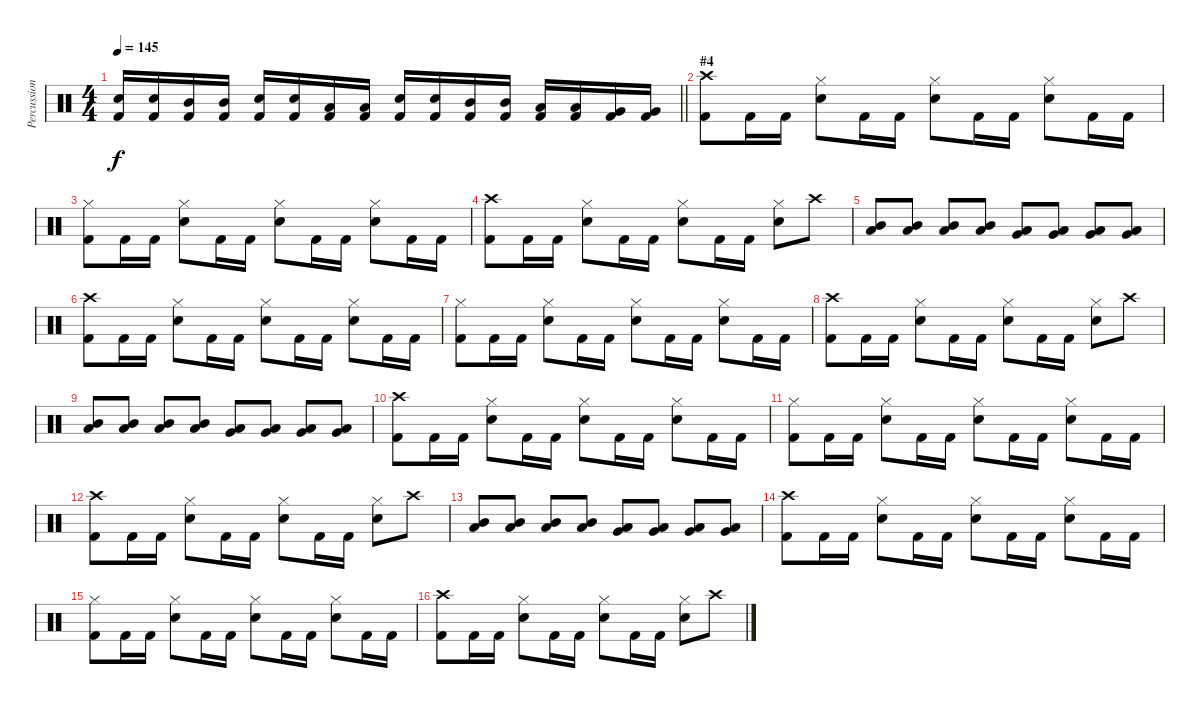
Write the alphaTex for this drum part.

\track ("Percussion" "Percussion") {instrument percussion}
\staff {score}
\articulation defaults
\ts (4 4)
\tempo 145
\clef neutral
\barLineRight lightlight
\ks c
("Electric Snare (hit)" "Kick (hit) 2").16{dy f} ("Electric Snare (hit)" "Kick (hit) 2").16 ("Mid Tom (hit)" "Kick (hit) 2").16 ("Mid Tom (hit)" "Kick (hit) 2").16 ("Electric Snare (hit)" "Kick (hit) 2").16 ("Electric Snare (hit)" "Kick (hit) 2").16 ("Low Tom (hit)" "Kick (hit) 2").16 ("Low Tom (hit)" "Kick (hit) 2").16 ("Electric Snare (hit)" "Kick (hit) 2").16 ("Electric Snare (hit)" "Kick (hit) 2").16 ("Mid Tom (hit)" "Kick (hit) 2").16 ("Mid Tom (hit)" "Kick (hit) 2").16 ("Low Tom (hit)" "Kick (hit) 2").16 ("Low Tom (hit)" "Kick (hit) 2").16 ("Very Low Tom (hit)" "Kick (hit) 2").16 ("Very Low Tom (hit)" "Kick (hit) 2").16 |
\section ("" "#4")
("Crash high (hit)" "Kick (hit) 2").8 "Kick (hit) 2".16 "Kick (hit) 2".16 ("Hi-Hat (closed)" "Electric Snare (hit)").8 "Kick (hit) 2".16 "Kick (hit) 2".16 ("Hi-Hat (closed)" "Electric Snare (hit)").8 "Kick (hit) 2".16 "Kick (hit) 2".16 ("Hi-Hat (closed)" "Electric Snare (hit)").8 "Kick (hit) 2".16 "Kick (hit) 2".16 |
("Hi-Hat (closed)" "Kick (hit) 2").8 "Kick (hit) 2".16 "Kick (hit) 2".16 ("Hi-Hat (closed)" "Electric Snare (hit)").8 "Kick (hit) 2".16 "Kick (hit) 2".16 ("Hi-Hat (closed)" "Electric Snare (hit)").8 "Kick (hit) 2".16 "Kick (hit) 2".16 ("Hi-Hat (closed)" "Electric Snare (hit)").8 "Kick (hit) 2".16 "Kick (hit) 2".16 |
("Crash high (hit)" "Kick (hit) 2").8 "Kick (hit) 2".16 "Kick (hit) 2".16 ("Hi-Hat (closed)" "Electric Snare (hit)").8 "Kick (hit) 2".16 "Kick (hit) 2".16 ("Hi-Hat (closed)" "Electric Snare (hit)").8 "Kick (hit) 2".16 "Kick (hit) 2".16 ("Hi-Hat (closed)" "Electric Snare (hit)").8 "Crash high (hit)".8 |
("Low Tom (hit)" "Mid Tom (hit)").8 ("Low Tom (hit)" "Mid Tom (hit)").8 ("Low Tom (hit)" "Mid Tom (hit)").8 ("Low Tom (hit)" "Mid Tom (hit)").8 ("Very Low Tom (hit)" "Low Tom (hit)").8 ("Very Low Tom (hit)" "Low Tom (hit)").8 ("Very Low Tom (hit)" "Low Tom (hit)").8 ("Very Low Tom (hit)" "Low Tom (hit)").8 |
("Crash high (hit)" "Kick (hit) 2").8 "Kick (hit) 2".16 "Kick (hit) 2".16 ("Hi-Hat (closed)" "Electric Snare (hit)").8 "Kick (hit) 2".16 "Kick (hit) 2".16 ("Hi-Hat (closed)" "Electric Snare (hit)").8 "Kick (hit) 2".16 "Kick (hit) 2".16 ("Hi-Hat (closed)" "Electric Snare (hit)").8 "Kick (hit) 2".16 "Kick (hit) 2".16 |
("Hi-Hat (closed)" "Kick (hit) 2").8 "Kick (hit) 2".16 "Kick (hit) 2".16 ("Hi-Hat (closed)" "Electric Snare (hit)").8 "Kick (hit) 2".16 "Kick (hit) 2".16 ("Hi-Hat (closed)" "Electric Snare (hit)").8 "Kick (hit) 2".16 "Kick (hit) 2".16 ("Hi-Hat (closed)" "Electric Snare (hit)").8 "Kick (hit) 2".16 "Kick (hit) 2".16 |
("Crash high (hit)" "Kick (hit) 2").8 "Kick (hit) 2".16 "Kick (hit) 2".16 ("Hi-Hat (closed)" "Electric Snare (hit)").8 "Kick (hit) 2".16 "Kick (hit) 2".16 ("Hi-Hat (closed)" "Electric Snare (hit)").8 "Kick (hit) 2".16 "Kick (hit) 2".16 ("Hi-Hat (closed)" "Electric Snare (hit)").8 "Crash high (hit)".8 |
("Low Tom (hit)" "Mid Tom (hit)").8 ("Low Tom (hit)" "Mid Tom (hit)").8 ("Low Tom (hit)" "Mid Tom (hit)").8 ("Low Tom (hit)" "Mid Tom (hit)").8 ("Very Low Tom (hit)" "Low Tom (hit)").8 ("Very Low Tom (hit)" "Low Tom (hit)").8 ("Very Low Tom (hit)" "Low Tom (hit)").8 ("Very Low Tom (hit)" "Low Tom (hit)").8 |
("Crash high (hit)" "Kick (hit) 2").8 "Kick (hit) 2".16 "Kick (hit) 2".16 ("Hi-Hat (closed)" "Electric Snare (hit)").8 "Kick (hit) 2".16 "Kick (hit) 2".16 ("Hi-Hat (closed)" "Electric Snare (hit)").8 "Kick (hit) 2".16 "Kick (hit) 2".16 ("Hi-Hat (closed)" "Electric Snare (hit)").8 "Kick (hit) 2".16 "Kick (hit) 2".16 |
("Hi-Hat (closed)" "Kick (hit) 2").8 "Kick (hit) 2".16 "Kick (hit) 2".16 ("Hi-Hat (closed)" "Electric Snare (hit)").8 "Kick (hit) 2".16 "Kick (hit) 2".16 ("Hi-Hat (closed)" "Electric Snare (hit)").8 "Kick (hit) 2".16 "Kick (hit) 2".16 ("Hi-Hat (closed)" "Electric Snare (hit)").8 "Kick (hit) 2".16 "Kick (hit) 2".16 |
("Crash high (hit)" "Kick (hit) 2").8 "Kick (hit) 2".16 "Kick (hit) 2".16 ("Hi-Hat (closed)" "Electric Snare (hit)").8 "Kick (hit) 2".16 "Kick (hit) 2".16 ("Hi-Hat (closed)" "Electric Snare (hit)").8 "Kick (hit) 2".16 "Kick (hit) 2".16 ("Hi-Hat (closed)" "Electric Snare (hit)").8 "Crash high (hit)".8 |
("Low Tom (hit)" "Mid Tom (hit)").8 ("Low Tom (hit)" "Mid Tom (hit)").8 ("Low Tom (hit)" "Mid Tom (hit)").8 ("Low Tom (hit)" "Mid Tom (hit)").8 ("Very Low Tom (hit)" "Low Tom (hit)").8 ("Very Low Tom (hit)" "Low Tom (hit)").8 ("Very Low Tom (hit)" "Low Tom (hit)").8 ("Very Low Tom (hit)" "Low Tom (hit)").8 |
("Crash high (hit)" "Kick (hit) 2").8 "Kick (hit) 2".16 "Kick (hit) 2".16 ("Hi-Hat (closed)" "Electric Snare (hit)").8 "Kick (hit) 2".16 "Kick (hit) 2".16 ("Hi-Hat (closed)" "Electric Snare (hit)").8 "Kick (hit) 2".16 "Kick (hit) 2".16 ("Hi-Hat (closed)" "Electric Snare (hit)").8 "Kick (hit) 2".16 "Kick (hit) 2".16 |
("Hi-Hat (closed)" "Kick (hit) 2").8 "Kick (hit) 2".16 "Kick (hit) 2".16 ("Hi-Hat (closed)" "Electric Snare (hit)").8 "Kick (hit) 2".16 "Kick (hit) 2".16 ("Hi-Hat (closed)" "Electric Snare (hit)").8 "Kick (hit) 2".16 "Kick (hit) 2".16 ("Hi-Hat (closed)" "Electric Snare (hit)").8 "Kick (hit) 2".16 "Kick (hit) 2".16 |
("Crash high (hit)" "Kick (hit) 2").8 "Kick (hit) 2".16 "Kick (hit) 2".16 ("Hi-Hat (closed)" "Electric Snare (hit)").8 "Kick (hit) 2".16 "Kick (hit) 2".16 ("Hi-Hat (closed)" "Electric Snare (hit)").8 "Kick (hit) 2".16 "Kick (hit) 2".16 ("Hi-Hat (closed)" "Electric Snare (hit)").8 "Crash high (hit)".8
